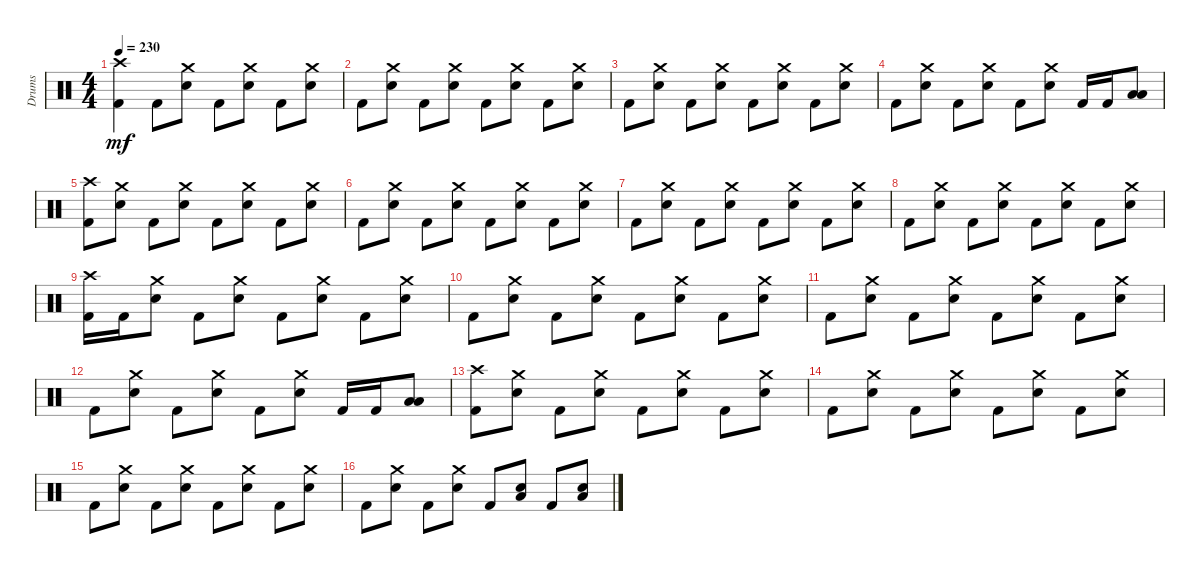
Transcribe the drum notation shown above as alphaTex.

\track ("Drums" "Drums") {instrument percussion}
\staff {score}
\articulation defaults
\ts (4 4)
\tempo 230
\clef neutral
\ks c
("Kick (hit) 2" "Crash high (hit)").4{dy mf} "Kick (hit) 2".8 ("Electric Snare (hit)" "Crash medium (hit)").8 "Kick (hit) 2".8 ("Electric Snare (hit)" "Crash medium (hit)").8 "Kick (hit) 2".8 ("Electric Snare (hit)" "Crash medium (hit)").8 |
"Kick (hit) 2".8 ("Electric Snare (hit)" "Crash medium (hit)").8 "Kick (hit) 2".8 ("Electric Snare (hit)" "Crash medium (hit)").8 "Kick (hit) 2".8 ("Electric Snare (hit)" "Crash medium (hit)").8 "Kick (hit) 2".8 ("Electric Snare (hit)" "Crash medium (hit)").8 |
"Kick (hit) 2".8 ("Electric Snare (hit)" "Crash medium (hit)").8 "Kick (hit) 2".8 ("Electric Snare (hit)" "Crash medium (hit)").8 "Kick (hit) 2".8 ("Electric Snare (hit)" "Crash medium (hit)").8 "Kick (hit) 2".8 ("Electric Snare (hit)" "Crash medium (hit)").8 |
"Kick (hit) 2".8 ("Electric Snare (hit)" "Crash medium (hit)").8 "Kick (hit) 2".8 ("Electric Snare (hit)" "Crash medium (hit)").8 "Kick (hit) 2".8 ("Electric Snare (hit)" "Crash medium (hit)").8 "Kick (hit) 2".16 "Kick (hit) 2".16 ("Low Floor Tom (hit)" "Low Tom (hit)").8 |
("Kick (hit) 2" "Crash high (hit)").8 ("Electric Snare (hit)" "Crash medium (hit)").8 "Kick (hit) 2".8 ("Electric Snare (hit)" "Crash medium (hit)").8 "Kick (hit) 2".8 ("Electric Snare (hit)" "Crash medium (hit)").8 "Kick (hit) 2".8 ("Electric Snare (hit)" "Crash medium (hit)").8 |
"Kick (hit) 2".8 ("Electric Snare (hit)" "Crash medium (hit)").8 "Kick (hit) 2".8 ("Electric Snare (hit)" "Crash medium (hit)").8 "Kick (hit) 2".8 ("Electric Snare (hit)" "Crash medium (hit)").8 "Kick (hit) 2".8 ("Electric Snare (hit)" "Crash medium (hit)").8 |
"Kick (hit) 2".8 ("Electric Snare (hit)" "Crash medium (hit)").8 "Kick (hit) 2".8 ("Electric Snare (hit)" "Crash medium (hit)").8 "Kick (hit) 2".8 ("Electric Snare (hit)" "Crash medium (hit)").8 "Kick (hit) 2".8 ("Electric Snare (hit)" "Crash medium (hit)").8 |
"Kick (hit) 2".8 ("Electric Snare (hit)" "Crash medium (hit)").8 "Kick (hit) 2".8 ("Electric Snare (hit)" "Crash medium (hit)").8 "Kick (hit) 2".8 ("Electric Snare (hit)" "Crash medium (hit)").8 "Kick (hit) 2".8 ("Electric Snare (hit)" "Crash medium (hit)").8 |
("Kick (hit) 2" "Crash high (hit)").16 "Kick (hit) 2".16 ("Electric Snare (hit)" "Crash medium (hit)").8 "Kick (hit) 2".8 ("Electric Snare (hit)" "Crash medium (hit)").8 "Kick (hit) 2".8 ("Electric Snare (hit)" "Crash medium (hit)").8 "Kick (hit) 2".8 ("Electric Snare (hit)" "Crash medium (hit)").8 |
"Kick (hit) 2".8 ("Electric Snare (hit)" "Crash medium (hit)").8 "Kick (hit) 2".8 ("Electric Snare (hit)" "Crash medium (hit)").8 "Kick (hit) 2".8 ("Electric Snare (hit)" "Crash medium (hit)").8 "Kick (hit) 2".8 ("Electric Snare (hit)" "Crash medium (hit)").8 |
"Kick (hit) 2".8 ("Electric Snare (hit)" "Crash medium (hit)").8 "Kick (hit) 2".8 ("Electric Snare (hit)" "Crash medium (hit)").8 "Kick (hit) 2".8 ("Electric Snare (hit)" "Crash medium (hit)").8 "Kick (hit) 2".8 ("Electric Snare (hit)" "Crash medium (hit)").8 |
"Kick (hit) 2".8 ("Electric Snare (hit)" "Crash medium (hit)").8 "Kick (hit) 2".8 ("Electric Snare (hit)" "Crash medium (hit)").8 "Kick (hit) 2".8 ("Electric Snare (hit)" "Crash medium (hit)").8 "Kick (hit) 2".16 "Kick (hit) 2".16 ("Low Floor Tom (hit)" "Low Tom (hit)").8 |
("Kick (hit) 2" "Crash high (hit)").8 ("Electric Snare (hit)" "Crash medium (hit)").8 "Kick (hit) 2".8 ("Electric Snare (hit)" "Crash medium (hit)").8 "Kick (hit) 2".8 ("Electric Snare (hit)" "Crash medium (hit)").8 "Kick (hit) 2".8 ("Electric Snare (hit)" "Crash medium (hit)").8 |
"Kick (hit) 2".8 ("Electric Snare (hit)" "Crash medium (hit)").8 "Kick (hit) 2".8 ("Electric Snare (hit)" "Crash medium (hit)").8 "Kick (hit) 2".8 ("Electric Snare (hit)" "Crash medium (hit)").8 "Kick (hit) 2".8 ("Electric Snare (hit)" "Crash medium (hit)").8 |
"Kick (hit) 2".8 ("Electric Snare (hit)" "Crash medium (hit)").8 "Kick (hit) 2".8 ("Electric Snare (hit)" "Crash medium (hit)").8 "Kick (hit) 2".8 ("Electric Snare (hit)" "Crash medium (hit)").8 "Kick (hit) 2".8 ("Electric Snare (hit)" "Crash medium (hit)").8 |
"Kick (hit) 2".8 ("Electric Snare (hit)" "Crash medium (hit)").8 "Kick (hit) 2".8 ("Electric Snare (hit)" "Crash medium (hit)").8 "Kick (hit) 2".8 ("Electric Snare (hit)" "Low Tom (hit)").8 "Kick (hit) 2".8 ("Electric Snare (hit)" "Low Tom (hit)").8
